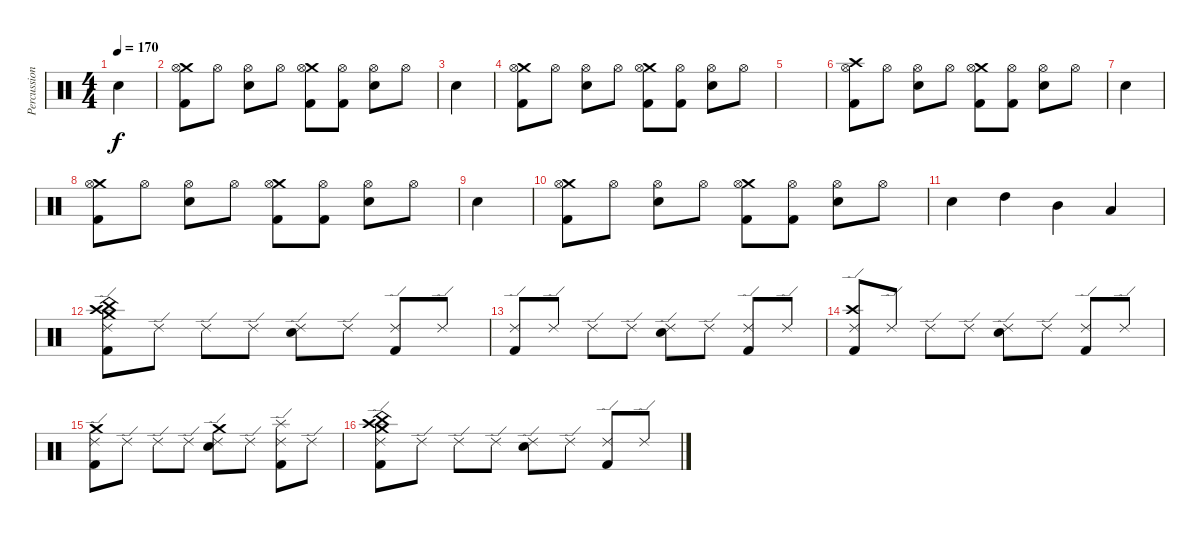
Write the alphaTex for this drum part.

\track ("Percussion" "Percussion") {instrument percussion}
\staff {score}
\articulation defaults
\ts (4 4)
\tempo 170
\clef neutral
\ks c "Snare (hit) 2".4{dy f}
|
("Crash medium (hit)" "Kick (hit) 2" "Hi-Hat (open)").8 "Hi-Hat (open)".8 ("Snare (hit) 2" "Hi-Hat (open)").8 "Hi-Hat (open)".8 ("Crash medium (hit)" "Kick (hit) 2" "Hi-Hat (open)").8 ("Kick (hit) 2" "Hi-Hat (open)").8 ("Snare (hit) 2" "Hi-Hat (open)").8 "Hi-Hat (open)".8 |
"Snare (hit) 2".4 |
("Crash medium (hit)" "Kick (hit) 2" "Hi-Hat (open)").8 "Hi-Hat (open)".8 ("Snare (hit) 2" "Hi-Hat (open)").8 "Hi-Hat (open)".8 ("Crash medium (hit)" "Kick (hit) 2" "Hi-Hat (open)").8 ("Kick (hit) 2" "Hi-Hat (open)").8 ("Snare (hit) 2" "Hi-Hat (open)").8 "Hi-Hat (open)".8 |
|
("Crash high (hit)" "Kick (hit) 2" "Hi-Hat (open)").8 "Hi-Hat (open)".8 ("Snare (hit) 2" "Hi-Hat (open)").8 "Hi-Hat (open)".8 ("Crash medium (hit)" "Kick (hit) 2" "Hi-Hat (open)").8 ("Kick (hit) 2" "Hi-Hat (open)").8 ("Snare (hit) 2" "Hi-Hat (open)").8 "Hi-Hat (open)".8 |
"Snare (hit) 2".4 |
("Crash medium (hit)" "Kick (hit) 2" "Hi-Hat (open)").8 "Hi-Hat (open)".8 ("Snare (hit) 2" "Hi-Hat (open)").8 "Hi-Hat (open)".8 ("Crash medium (hit)" "Kick (hit) 2" "Hi-Hat (open)").8 ("Kick (hit) 2" "Hi-Hat (open)").8 ("Snare (hit) 2" "Hi-Hat (open)").8 "Hi-Hat (open)".8 |
"Snare (hit) 2".4 |
("Crash medium (hit)" "Kick (hit) 2" "Hi-Hat (open)").8 "Hi-Hat (open)".8 ("Snare (hit) 2" "Hi-Hat (open)").8 "Hi-Hat (open)".8 ("Crash medium (hit)" "Kick (hit) 2" "Hi-Hat (open)").8 ("Kick (hit) 2" "Hi-Hat (open)").8 ("Snare (hit) 2" "Hi-Hat (open)").8 "Hi-Hat (open)".8 |
"Snare (hit) 2".4 "High Tom (hit)".4 "Mid Tom (hit)".4 "Low Tom (hit)".4 |
("China (hit)" "Crash medium (hit)" "Kick (hit) 2" "Crash high (hit)" "Ride (edge) 2").8 "Ride (edge) 2".8 "Ride (edge) 2".8 "Ride (edge) 2".8 ("Snare (hit) 2" "Ride (edge) 2").8 "Ride (edge) 2".8 ("Kick (hit) 2" "Ride (edge) 2").8 "Ride (edge) 2".8 |
("Kick (hit) 2" "Ride (edge) 2").8 "Ride (edge) 2".8 "Ride (edge) 2".8 "Ride (edge) 2".8 ("Snare (hit) 2" "Ride (edge) 2").8 "Ride (edge) 2".8 ("Kick (hit) 2" "Ride (edge) 2").8 "Ride (edge) 2".8 |
("Kick (hit) 2" "Crash high (hit)" "Ride (edge) 2").8 "Ride (edge) 2".8 "Ride (edge) 2".8 "Ride (edge) 2".8 ("Snare (hit) 2" "Ride (edge) 2").8 "Ride (edge) 2".8 ("Kick (hit) 2" "Ride (edge) 2").8 "Ride (edge) 2".8 |
("Crash medium (hit)" "Kick (hit) 2" "Ride (edge) 2").8 "Ride (edge) 2".8 "Ride (edge) 2".8 "Ride (edge) 2".8 ("Crash medium (hit)" "Snare (hit) 2" "Ride (edge) 2").8 "Ride (edge) 2".8 ("Splash (hit)" "Kick (hit) 2" "Ride (edge) 2").8 "Ride (edge) 2".8 |
("China (hit)" "Crash medium (hit)" "Kick (hit) 2" "Crash high (hit)" "Ride (edge) 2").8 "Ride (edge) 2".8 "Ride (edge) 2".8 "Ride (edge) 2".8 ("Snare (hit) 2" "Ride (edge) 2").8 "Ride (edge) 2".8 ("Kick (hit) 2" "Ride (edge) 2").8 "Ride (edge) 2".8
